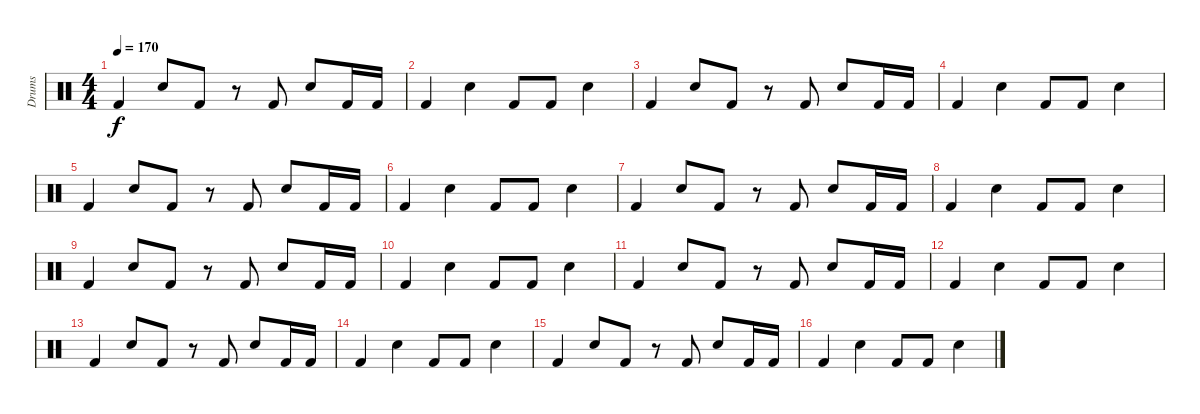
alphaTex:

\track ("Drums" "Drums") {instrument percussion}
\staff {score}
\articulation defaults
\ts (4 4)
\tempo 170
\clef neutral
\ks c "Kick (hit) 2".4{dy f} "Electric Snare (hit)".8 "Kick (hit) 2".8
r.8 "Kick (hit) 2".8 "Electric Snare (hit)".8 "Kick (hit) 2".16 "Kick (hit) 2".16 |
"Kick (hit) 2".4 "Electric Snare (hit)".4 "Kick (hit) 2".8 "Kick (hit) 2".8 "Electric Snare (hit)".4 |
"Kick (hit) 2".4 "Electric Snare (hit)".8 "Kick (hit) 2".8 r.8 "Kick (hit) 2".8 "Electric Snare (hit)".8 "Kick (hit) 2".16 "Kick (hit) 2".16 |
"Kick (hit) 2".4 "Electric Snare (hit)".4 "Kick (hit) 2".8 "Kick (hit) 2".8 "Electric Snare (hit)".4 |
"Kick (hit) 2".4 "Electric Snare (hit)".8 "Kick (hit) 2".8 r.8 "Kick (hit) 2".8 "Electric Snare (hit)".8 "Kick (hit) 2".16 "Kick (hit) 2".16 |
"Kick (hit) 2".4 "Electric Snare (hit)".4 "Kick (hit) 2".8 "Kick (hit) 2".8 "Electric Snare (hit)".4 |
"Kick (hit) 2".4 "Electric Snare (hit)".8 "Kick (hit) 2".8 r.8 "Kick (hit) 2".8 "Electric Snare (hit)".8 "Kick (hit) 2".16 "Kick (hit) 2".16 |
"Kick (hit) 2".4 "Electric Snare (hit)".4 "Kick (hit) 2".8 "Kick (hit) 2".8 "Electric Snare (hit)".4 |
"Kick (hit) 2".4 "Electric Snare (hit)".8 "Kick (hit) 2".8 r.8 "Kick (hit) 2".8 "Electric Snare (hit)".8 "Kick (hit) 2".16 "Kick (hit) 2".16 |
"Kick (hit) 2".4 "Electric Snare (hit)".4 "Kick (hit) 2".8 "Kick (hit) 2".8 "Electric Snare (hit)".4 |
"Kick (hit) 2".4 "Electric Snare (hit)".8 "Kick (hit) 2".8 r.8 "Kick (hit) 2".8 "Electric Snare (hit)".8 "Kick (hit) 2".16 "Kick (hit) 2".16 |
"Kick (hit) 2".4 "Electric Snare (hit)".4 "Kick (hit) 2".8 "Kick (hit) 2".8 "Electric Snare (hit)".4 |
"Kick (hit) 2".4 "Electric Snare (hit)".8 "Kick (hit) 2".8 r.8 "Kick (hit) 2".8 "Electric Snare (hit)".8 "Kick (hit) 2".16 "Kick (hit) 2".16 |
"Kick (hit) 2".4 "Electric Snare (hit)".4 "Kick (hit) 2".8 "Kick (hit) 2".8 "Electric Snare (hit)".4 |
"Kick (hit) 2".4 "Electric Snare (hit)".8 "Kick (hit) 2".8 r.8 "Kick (hit) 2".8 "Electric Snare (hit)".8 "Kick (hit) 2".16 "Kick (hit) 2".16 |
"Kick (hit) 2".4 "Electric Snare (hit)".4 "Kick (hit) 2".8 "Kick (hit) 2".8 "Electric Snare (hit)".4
